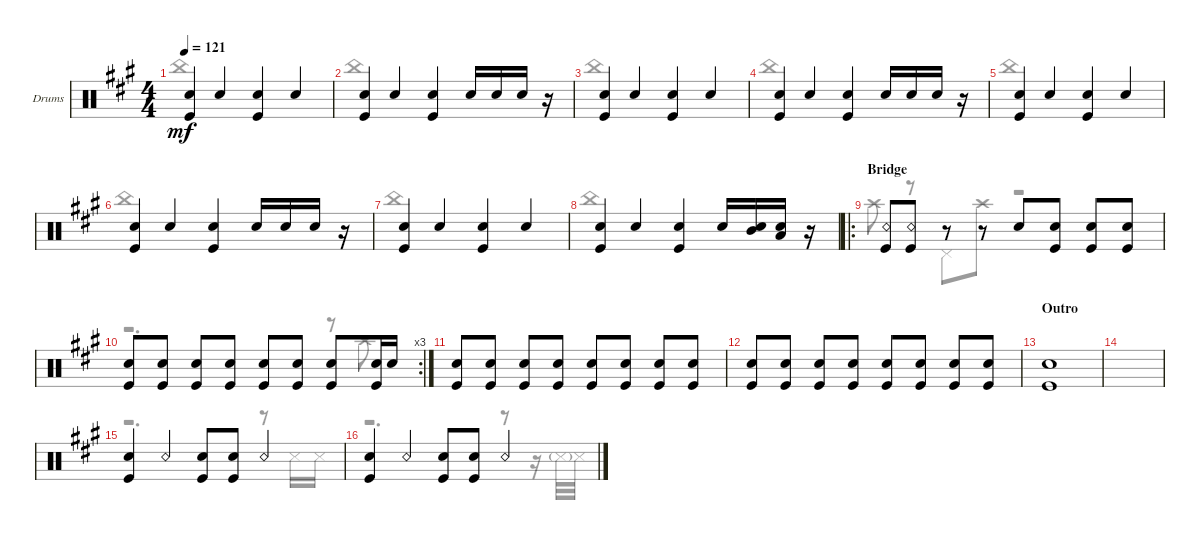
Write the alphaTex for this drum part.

\defaultSystemsLayout 4
\bracketExtendMode groupsimilarinstruments
\firstSystemTrackNameOrientation horizontal
\otherSystemsTrackNameOrientation horizontal
\track ("Drumkit" "Drums") {instrument percussion}
\staff {score}
\articulation defaults
\voice
\ts (4 4)
\tempo 121
\clef neutral
\ks a
("Kick (hit)" "Snare (hit) 2").4{dy mf} "Snare (hit) 2".4 ("Kick (hit)" "Snare (hit) 2").4 "Snare (hit) 2".4 |
("Kick (hit)" "Snare (hit) 2").4 "Snare (hit) 2".4 ("Kick (hit)" "Snare (hit) 2").4 "Snare (hit) 2".16 "Snare (hit) 2".16 "Snare (hit) 2".16 r.16 |
("Kick (hit)" "Snare (hit) 2").4 "Snare (hit) 2".4 ("Kick (hit)" "Snare (hit) 2").4 "Snare (hit) 2".4 |
("Kick (hit)" "Snare (hit) 2").4 "Snare (hit) 2".4 ("Kick (hit)" "Snare (hit) 2").4 "Snare (hit) 2".16 "Snare (hit) 2".16 "Snare (hit) 2".16 r.16 |
("Kick (hit)" "Snare (hit) 2").4 "Snare (hit) 2".4 ("Kick (hit)" "Snare (hit) 2").4 "Snare (hit) 2".4 |
("Kick (hit)" "Snare (hit) 2").4 "Snare (hit) 2".4 ("Kick (hit)" "Snare (hit) 2").4 "Snare (hit) 2".16 "Snare (hit) 2".16 "Snare (hit) 2".16 r.16 |
("Kick (hit)" "Snare (hit) 2").4 "Snare (hit) 2".4 ("Kick (hit)" "Snare (hit) 2").4 "Snare (hit) 2".4 |
("Kick (hit)" "Snare (hit) 2").4 "Snare (hit) 2".4 ("Kick (hit)" "Snare (hit) 2").4 "Snare (hit) 2".16 ("Mid Tom (hit)" "Snare (hit) 2").16 ("Low Tom (hit)" "Snare (hit) 2").16 r.16 |
\ro
\section ("" "Bridge")
("Kick (hit)" "Snare (rim shot)").8 ("Kick (hit)" "Snare (rim shot)").8 r.8 r.8 "Snare (hit) 2".8 ("Snare (hit) 2" "Kick (hit)").8 ("Snare (hit) 2" "Kick (hit)").8 ("Snare (hit) 2" "Kick (hit)").8 |
\rc 3
("Snare (hit) 2" "Kick (hit)").8 ("Snare (hit) 2" "Kick (hit)").8 ("Snare (hit) 2" "Kick (hit)").8 ("Snare (hit) 2" "Kick (hit)").8 ("Snare (hit) 2" "Kick (hit)").8 ("Snare (hit) 2" "Kick (hit)").8 ("Snare (hit) 2" "Kick (hit)").8 ("Snare (hit) 2" "Kick (hit)").16 "Snare (hit) 2".16 |
("Snare (hit) 2" "Kick (hit)").8 ("Snare (hit) 2" "Kick (hit)").8 ("Snare (hit) 2" "Kick (hit)").8 ("Snare (hit) 2" "Kick (hit)").8 ("Snare (hit) 2" "Kick (hit)").8 ("Snare (hit) 2" "Kick (hit)").8 ("Snare (hit) 2" "Kick (hit)").8 ("Snare (hit) 2" "Kick (hit)").8 |
("Snare (hit) 2" "Kick (hit)").8 ("Snare (hit) 2" "Kick (hit)").8 ("Snare (hit) 2" "Kick (hit)").8 ("Snare (hit) 2" "Kick (hit)").8 ("Snare (hit) 2" "Kick (hit)").8 ("Snare (hit) 2" "Kick (hit)").8 ("Snare (hit) 2" "Kick (hit)").8 ("Snare (hit) 2" "Kick (hit)").8 |
\section ("" "Outro")
("Kick (hit)" "Snare (hit) 2").1 |
|
("Kick (hit)" "Snare (hit) 2").4 "Snare (rim shot)".4 ("Kick (hit)" "Snare (hit) 2").8 ("Kick (hit)" "Snare (hit) 2").8 "Snare (rim shot)".4 |
("Kick (hit)" "Snare (hit) 2").4 "Snare (rim shot)".4 ("Kick (hit)" "Snare (hit) 2").8 ("Kick (hit)" "Snare (hit) 2").8 "Snare (rim shot)".4
\voice
\clef neutral
\ottava regular
\simile none
\ks a "China (hit)".1{dy mf}
|
"China (hit)".1 |
"China (hit)".1 |
"China (hit)".1 |
"China (hit)".1 |
"China (hit)".1 |
"China (hit)".1 |
"China (hit)".1 |
"Crash high (hit)".8 r.8 "Pedal Hi-Hat (hit)".8 "Crash high (hit)".8 r.2 |
r.2{d} r.8 "Crash high (hit)".8 |
|
|
|
|
r.2{d} r.8 "Snare (side stick) 3".16 "Snare (side stick) 3".16 |
r.2{d} r.8 r.16 "Snare (side stick) 3"{g}.32 "Snare (side stick) 3".32
